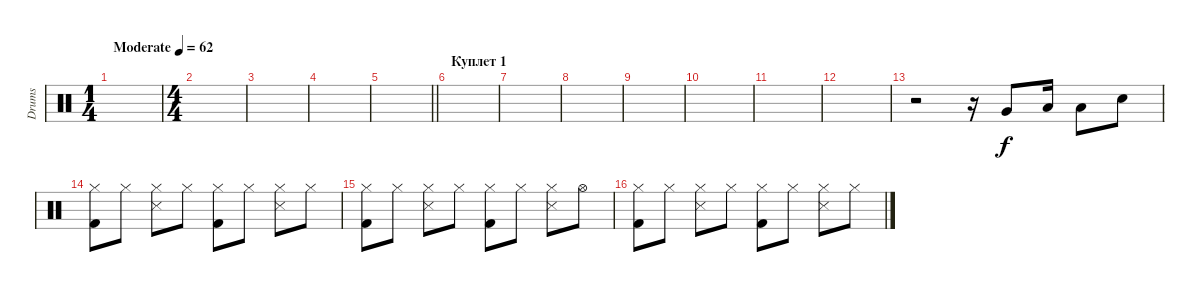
\track ("Drums" "Drums") {instrument percussion}
\staff {score}
\articulation defaults
\ts (1 4)
\tempo (62 "Moderate")
\clef neutral
\ks c
|
\ts (4 4)
|
|
|
\barLineRight lightlight
|
\section ("" "Куплет 1")
|
|
|
|
|
|
|
r.2 r.16 "Very Low Tom (hit)".8 "Low Floor Tom (hit)".16 "Low Floor Tom (hit)".8 "Snare (hit) 2".8 |
("Kick (hit) 2" "Hi-Hat (closed)").8 "Hi-Hat (closed)".8 ("Snare (side stick) 3" "Hi-Hat (closed)").8 "Hi-Hat (closed)".8 ("Kick (hit) 2" "Hi-Hat (closed)").8 "Hi-Hat (closed)".8 ("Snare (side stick) 3" "Hi-Hat (closed)").8 "Hi-Hat (closed)".8 |
("Kick (hit) 2" "Hi-Hat (closed)").8 "Hi-Hat (closed)".8 ("Snare (side stick) 3" "Hi-Hat (closed)").8 "Hi-Hat (closed)".8 ("Kick (hit) 2" "Hi-Hat (closed)").8 "Hi-Hat (closed)".8 ("Snare (side stick) 3" "Hi-Hat (closed)").8 "Hi-Hat (open)".8 |
("Kick (hit) 2" "Hi-Hat (closed)").8 "Hi-Hat (closed)".8 ("Snare (side stick) 3" "Hi-Hat (closed)").8 "Hi-Hat (closed)".8 ("Kick (hit) 2" "Hi-Hat (closed)").8 "Hi-Hat (closed)".8 ("Snare (side stick) 3" "Hi-Hat (closed)").8 "Hi-Hat (closed)".8
